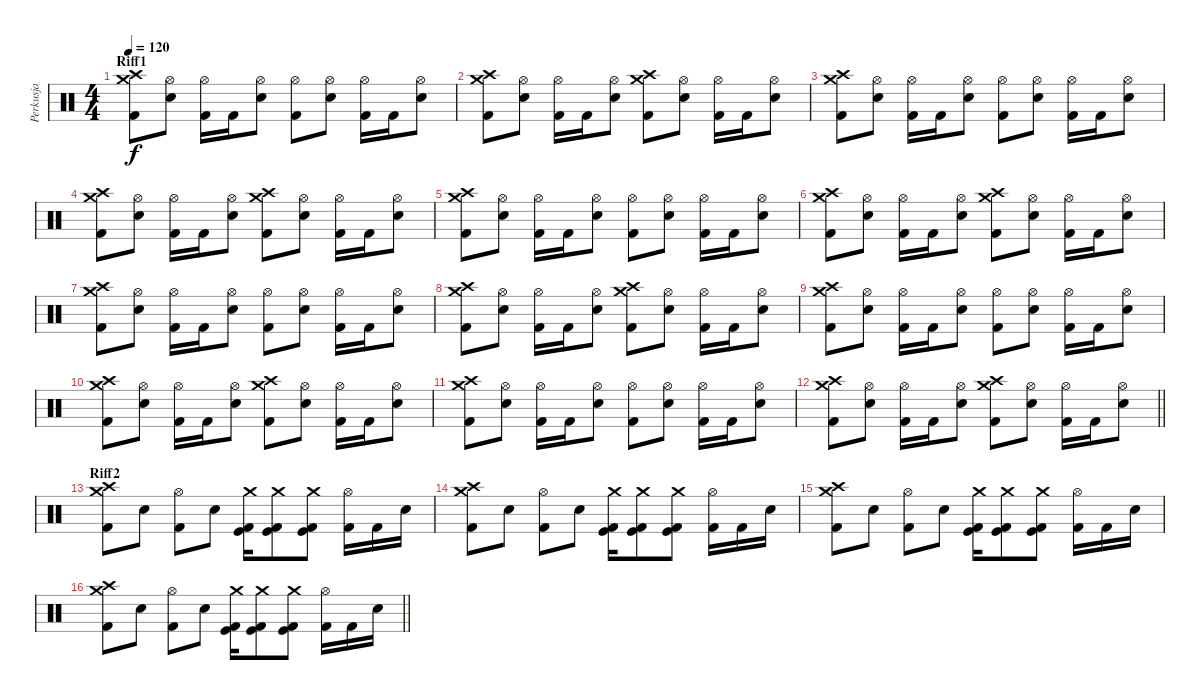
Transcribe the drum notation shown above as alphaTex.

\track ("Perkusja" "Perkusja") {instrument percussion}
\staff {score}
\articulation defaults
\ts (4 4)
\section ("" "Riff1")
\tempo 120
\clef neutral
\ks c
("Crash high (hit)" "Crash medium (hit)" "Kick (hit) 2").8{dy f} ("Hi-Hat (open)" "Electric Snare (hit)").8 ("Hi-Hat (open)" "Kick (hit) 2").16 "Kick (hit) 2".16 ("Hi-Hat (open)" "Electric Snare (hit)").8 ("Hi-Hat (open)" "Kick (hit) 2").8 ("Hi-Hat (open)" "Electric Snare (hit)").8 ("Hi-Hat (open)" "Kick (hit) 2").16 "Kick (hit) 2".16 ("Hi-Hat (open)" "Electric Snare (hit)").8 |
("Crash high (hit)" "Crash medium (hit)" "Kick (hit) 2").8 ("Hi-Hat (open)" "Electric Snare (hit)").8 ("Hi-Hat (open)" "Kick (hit) 2").16 "Kick (hit) 2".16 ("Hi-Hat (open)" "Electric Snare (hit)").8 ("Crash high (hit)" "Crash medium (hit)" "Kick (hit) 2").8 ("Hi-Hat (open)" "Electric Snare (hit)").8 ("Hi-Hat (open)" "Kick (hit) 2").16 "Kick (hit) 2".16 ("Hi-Hat (open)" "Electric Snare (hit)").8 |
("Crash high (hit)" "Crash medium (hit)" "Kick (hit) 2").8 ("Hi-Hat (open)" "Electric Snare (hit)").8 ("Hi-Hat (open)" "Kick (hit) 2").16 "Kick (hit) 2".16 ("Hi-Hat (open)" "Electric Snare (hit)").8 ("Hi-Hat (open)" "Kick (hit) 2").8 ("Hi-Hat (open)" "Electric Snare (hit)").8 ("Hi-Hat (open)" "Kick (hit) 2").16 "Kick (hit) 2".16 ("Hi-Hat (open)" "Electric Snare (hit)").8 |
("Crash high (hit)" "Crash medium (hit)" "Kick (hit) 2").8 ("Hi-Hat (open)" "Electric Snare (hit)").8 ("Hi-Hat (open)" "Kick (hit) 2").16 "Kick (hit) 2".16 ("Hi-Hat (open)" "Electric Snare (hit)").8 ("Crash high (hit)" "Crash medium (hit)" "Kick (hit) 2").8 ("Hi-Hat (open)" "Electric Snare (hit)").8 ("Hi-Hat (open)" "Kick (hit) 2").16 "Kick (hit) 2".16 ("Hi-Hat (open)" "Electric Snare (hit)").8 |
("Crash high (hit)" "Crash medium (hit)" "Kick (hit) 2").8 ("Hi-Hat (open)" "Electric Snare (hit)").8 ("Hi-Hat (open)" "Kick (hit) 2").16 "Kick (hit) 2".16 ("Hi-Hat (open)" "Electric Snare (hit)").8 ("Hi-Hat (open)" "Kick (hit) 2").8 ("Hi-Hat (open)" "Electric Snare (hit)").8 ("Hi-Hat (open)" "Kick (hit) 2").16 "Kick (hit) 2".16 ("Hi-Hat (open)" "Electric Snare (hit)").8 |
("Crash high (hit)" "Crash medium (hit)" "Kick (hit) 2").8 ("Hi-Hat (open)" "Electric Snare (hit)").8 ("Hi-Hat (open)" "Kick (hit) 2").16 "Kick (hit) 2".16 ("Hi-Hat (open)" "Electric Snare (hit)").8 ("Crash high (hit)" "Crash medium (hit)" "Kick (hit) 2").8 ("Hi-Hat (open)" "Electric Snare (hit)").8 ("Hi-Hat (open)" "Kick (hit) 2").16 "Kick (hit) 2".16 ("Hi-Hat (open)" "Electric Snare (hit)").8 |
("Crash high (hit)" "Crash medium (hit)" "Kick (hit) 2").8 ("Hi-Hat (open)" "Electric Snare (hit)").8 ("Hi-Hat (open)" "Kick (hit) 2").16 "Kick (hit) 2".16 ("Hi-Hat (open)" "Electric Snare (hit)").8 ("Hi-Hat (open)" "Kick (hit) 2").8 ("Hi-Hat (open)" "Electric Snare (hit)").8 ("Hi-Hat (open)" "Kick (hit) 2").16 "Kick (hit) 2".16 ("Hi-Hat (open)" "Electric Snare (hit)").8 |
("Crash high (hit)" "Crash medium (hit)" "Kick (hit) 2").8 ("Hi-Hat (open)" "Electric Snare (hit)").8 ("Hi-Hat (open)" "Kick (hit) 2").16 "Kick (hit) 2".16 ("Hi-Hat (open)" "Electric Snare (hit)").8 ("Crash high (hit)" "Crash medium (hit)" "Kick (hit) 2").8 ("Hi-Hat (open)" "Electric Snare (hit)").8 ("Hi-Hat (open)" "Kick (hit) 2").16 "Kick (hit) 2".16 ("Hi-Hat (open)" "Electric Snare (hit)").8 |
("Crash high (hit)" "Crash medium (hit)" "Kick (hit) 2").8 ("Hi-Hat (open)" "Electric Snare (hit)").8 ("Hi-Hat (open)" "Kick (hit) 2").16 "Kick (hit) 2".16 ("Hi-Hat (open)" "Electric Snare (hit)").8 ("Hi-Hat (open)" "Kick (hit) 2").8 ("Hi-Hat (open)" "Electric Snare (hit)").8 ("Hi-Hat (open)" "Kick (hit) 2").16 "Kick (hit) 2".16 ("Hi-Hat (open)" "Electric Snare (hit)").8 |
("Crash high (hit)" "Crash medium (hit)" "Kick (hit) 2").8 ("Hi-Hat (open)" "Electric Snare (hit)").8 ("Hi-Hat (open)" "Kick (hit) 2").16 "Kick (hit) 2".16 ("Hi-Hat (open)" "Electric Snare (hit)").8 ("Crash high (hit)" "Crash medium (hit)" "Kick (hit) 2").8 ("Hi-Hat (open)" "Electric Snare (hit)").8 ("Hi-Hat (open)" "Kick (hit) 2").16 "Kick (hit) 2".16 ("Hi-Hat (open)" "Electric Snare (hit)").8 |
("Crash high (hit)" "Crash medium (hit)" "Kick (hit) 2").8 ("Hi-Hat (open)" "Electric Snare (hit)").8 ("Hi-Hat (open)" "Kick (hit) 2").16 "Kick (hit) 2".16 ("Hi-Hat (open)" "Electric Snare (hit)").8 ("Hi-Hat (open)" "Kick (hit) 2").8 ("Hi-Hat (open)" "Electric Snare (hit)").8 ("Hi-Hat (open)" "Kick (hit) 2").16 "Kick (hit) 2".16 ("Hi-Hat (open)" "Electric Snare (hit)").8 |
\barLineRight lightlight
("Crash high (hit)" "Crash medium (hit)" "Kick (hit) 2").8 ("Hi-Hat (open)" "Electric Snare (hit)").8 ("Hi-Hat (open)" "Kick (hit) 2").16 "Kick (hit) 2".16 ("Hi-Hat (open)" "Electric Snare (hit)").8 ("Crash high (hit)" "Crash medium (hit)" "Kick (hit) 2").8 ("Hi-Hat (open)" "Electric Snare (hit)").8 ("Hi-Hat (open)" "Kick (hit) 2").16 "Kick (hit) 2".16 ("Hi-Hat (open)" "Electric Snare (hit)").8 |
\section ("" "Riff2")
("Crash high (hit)" "Crash medium (hit)" "Kick (hit) 2").8 "Electric Snare (hit)".8 ("Hi-Hat (open)" "Kick (hit) 2").8 "Electric Snare (hit)".8 ("Crash medium (hit)" "Kick (hit)" "Kick (hit) 2").16 ("Crash medium (hit)" "Kick (hit)" "Kick (hit) 2").8 ("Crash medium (hit)" "Kick (hit)" "Kick (hit) 2").8 ("Hi-Hat (open)" "Kick (hit) 2").16 "Kick (hit) 2".16 "Electric Snare (hit)".16 |
("Crash high (hit)" "Crash medium (hit)" "Kick (hit) 2").8 "Electric Snare (hit)".8 ("Hi-Hat (open)" "Kick (hit) 2").8 "Electric Snare (hit)".8 ("Crash medium (hit)" "Kick (hit)" "Kick (hit) 2").16 ("Crash medium (hit)" "Kick (hit)" "Kick (hit) 2").8 ("Crash medium (hit)" "Kick (hit)" "Kick (hit) 2").8 ("Hi-Hat (open)" "Kick (hit) 2").16 "Kick (hit) 2".16 "Electric Snare (hit)".16 |
("Crash high (hit)" "Crash medium (hit)" "Kick (hit) 2").8 "Electric Snare (hit)".8 ("Hi-Hat (open)" "Kick (hit) 2").8 "Electric Snare (hit)".8 ("Crash medium (hit)" "Kick (hit)" "Kick (hit) 2").16 ("Crash medium (hit)" "Kick (hit)" "Kick (hit) 2").8 ("Crash medium (hit)" "Kick (hit)" "Kick (hit) 2").8 ("Hi-Hat (open)" "Kick (hit) 2").16 "Kick (hit) 2".16 "Electric Snare (hit)".16 |
\barLineRight lightlight
("Crash high (hit)" "Crash medium (hit)" "Kick (hit) 2").8 "Electric Snare (hit)".8 ("Hi-Hat (open)" "Kick (hit) 2").8 "Electric Snare (hit)".8 ("Crash medium (hit)" "Kick (hit)" "Kick (hit) 2").16 ("Crash medium (hit)" "Kick (hit)" "Kick (hit) 2").8 ("Crash medium (hit)" "Kick (hit)" "Kick (hit) 2").8 ("Hi-Hat (open)" "Kick (hit) 2").16 "Kick (hit) 2".16 "Electric Snare (hit)".16
